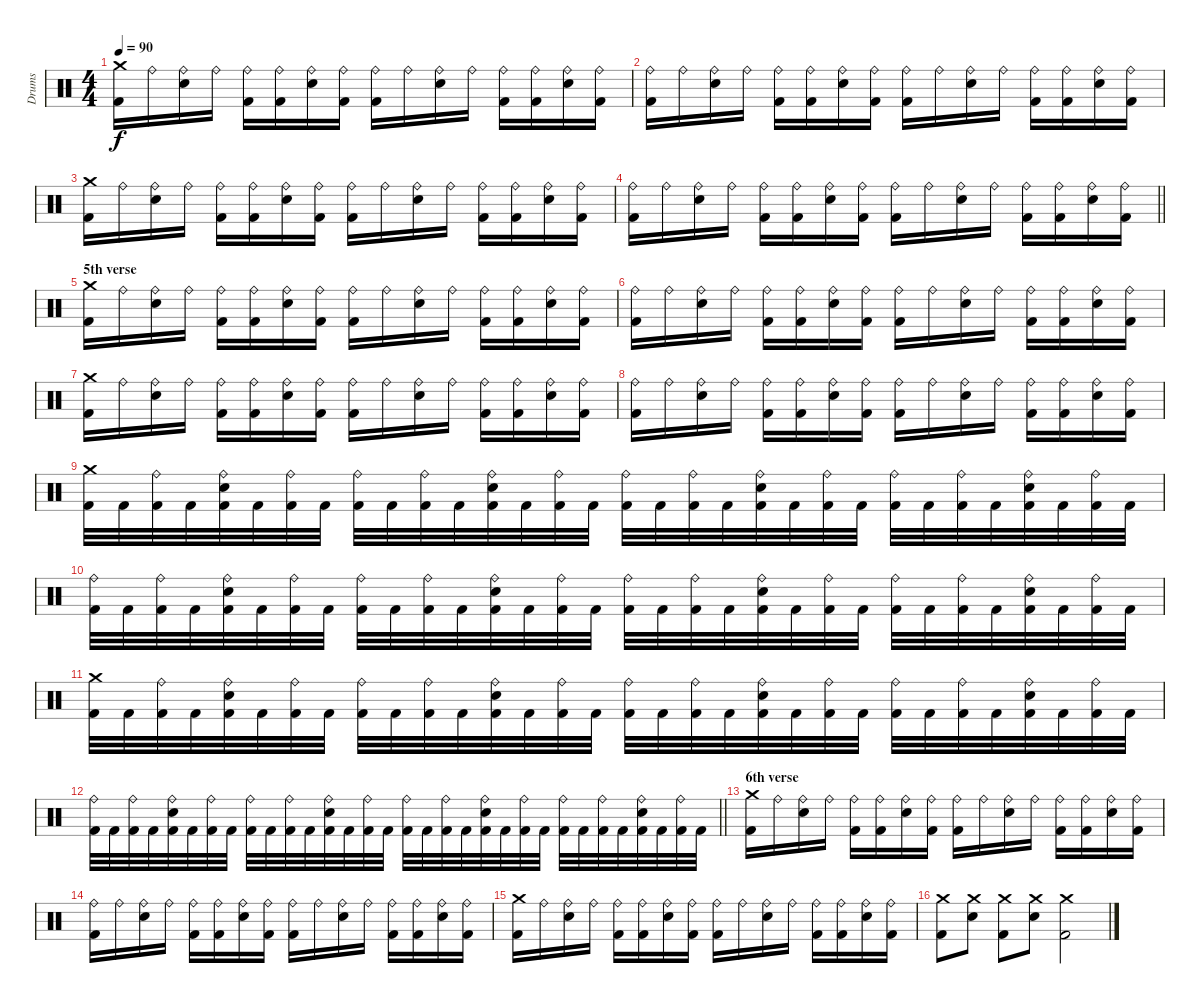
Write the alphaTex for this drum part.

\track ("Drums" "Drums") {instrument percussion}
\staff {score}
\articulation defaults
\ts (4 4)
\tempo 90
\clef neutral
\ks c
("Crash medium (hit)" "Kick (hit) 2").16{dy f} "Ride (bell)".16 ("Ride (bell)" "Snare (hit) 2").16 "Ride (bell)".16 ("Ride (bell)" "Kick (hit) 2").16 ("Ride (bell)" "Kick (hit) 2").16 ("Ride (bell)" "Snare (hit) 2").16 ("Ride (bell)" "Kick (hit) 2").16 ("Ride (bell)" "Kick (hit) 2").16 "Ride (bell)".16 ("Ride (bell)" "Snare (hit) 2").16 "Ride (bell)".16 ("Ride (bell)" "Kick (hit) 2").16 ("Ride (bell)" "Kick (hit) 2").16 ("Ride (bell)" "Snare (hit) 2").16 ("Ride (bell)" "Kick (hit) 2").16 |
("Ride (bell)" "Kick (hit) 2").16 "Ride (bell)".16 ("Ride (bell)" "Snare (hit) 2").16 "Ride (bell)".16 ("Ride (bell)" "Kick (hit) 2").16 ("Ride (bell)" "Kick (hit) 2").16 ("Ride (bell)" "Snare (hit) 2").16 ("Ride (bell)" "Kick (hit) 2").16 ("Ride (bell)" "Kick (hit) 2").16 "Ride (bell)".16 ("Ride (bell)" "Snare (hit) 2").16 "Ride (bell)".16 ("Ride (bell)" "Kick (hit) 2").16 ("Ride (bell)" "Kick (hit) 2").16 ("Ride (bell)" "Snare (hit) 2").16 ("Ride (bell)" "Kick (hit) 2").16 |
("Crash medium (hit)" "Kick (hit) 2").16 "Ride (bell)".16 ("Ride (bell)" "Snare (hit) 2").16 "Ride (bell)".16 ("Ride (bell)" "Kick (hit) 2").16 ("Ride (bell)" "Kick (hit) 2").16 ("Ride (bell)" "Snare (hit) 2").16 ("Ride (bell)" "Kick (hit) 2").16 ("Ride (bell)" "Kick (hit) 2").16 "Ride (bell)".16 ("Ride (bell)" "Snare (hit) 2").16 "Ride (bell)".16 ("Ride (bell)" "Kick (hit) 2").16 ("Ride (bell)" "Kick (hit) 2").16 ("Ride (bell)" "Snare (hit) 2").16 ("Ride (bell)" "Kick (hit) 2").16 |
\barLineRight lightlight
("Ride (bell)" "Kick (hit) 2").16 "Ride (bell)".16 ("Ride (bell)" "Snare (hit) 2").16 "Ride (bell)".16 ("Ride (bell)" "Kick (hit) 2").16 ("Ride (bell)" "Kick (hit) 2").16 ("Ride (bell)" "Snare (hit) 2").16 ("Ride (bell)" "Kick (hit) 2").16 ("Ride (bell)" "Kick (hit) 2").16 "Ride (bell)".16 ("Ride (bell)" "Snare (hit) 2").16 "Ride (bell)".16 ("Ride (bell)" "Kick (hit) 2").16 ("Ride (bell)" "Kick (hit) 2").16 ("Ride (bell)" "Snare (hit) 2").16 ("Ride (bell)" "Kick (hit) 2").16 |
\section ("" "5th verse")
("Crash medium (hit)" "Kick (hit) 2").16 "Ride (bell)".16 ("Ride (bell)" "Snare (hit) 2").16 "Ride (bell)".16 ("Ride (bell)" "Kick (hit) 2").16 ("Ride (bell)" "Kick (hit) 2").16 ("Ride (bell)" "Snare (hit) 2").16 ("Ride (bell)" "Kick (hit) 2").16 ("Ride (bell)" "Kick (hit) 2").16 "Ride (bell)".16 ("Ride (bell)" "Snare (hit) 2").16 "Ride (bell)".16 ("Ride (bell)" "Kick (hit) 2").16 ("Ride (bell)" "Kick (hit) 2").16 ("Ride (bell)" "Snare (hit) 2").16 ("Ride (bell)" "Kick (hit) 2").16 |
("Ride (bell)" "Kick (hit) 2").16 "Ride (bell)".16 ("Ride (bell)" "Snare (hit) 2").16 "Ride (bell)".16 ("Ride (bell)" "Kick (hit) 2").16 ("Ride (bell)" "Kick (hit) 2").16 ("Ride (bell)" "Snare (hit) 2").16 ("Ride (bell)" "Kick (hit) 2").16 ("Ride (bell)" "Kick (hit) 2").16 "Ride (bell)".16 ("Ride (bell)" "Snare (hit) 2").16 "Ride (bell)".16 ("Ride (bell)" "Kick (hit) 2").16 ("Ride (bell)" "Kick (hit) 2").16 ("Ride (bell)" "Snare (hit) 2").16 ("Ride (bell)" "Kick (hit) 2").16 |
("Crash medium (hit)" "Kick (hit) 2").16 "Ride (bell)".16 ("Ride (bell)" "Snare (hit) 2").16 "Ride (bell)".16 ("Ride (bell)" "Kick (hit) 2").16 ("Ride (bell)" "Kick (hit) 2").16 ("Ride (bell)" "Snare (hit) 2").16 ("Ride (bell)" "Kick (hit) 2").16 ("Ride (bell)" "Kick (hit) 2").16 "Ride (bell)".16 ("Ride (bell)" "Snare (hit) 2").16 "Ride (bell)".16 ("Ride (bell)" "Kick (hit) 2").16 ("Ride (bell)" "Kick (hit) 2").16 ("Ride (bell)" "Snare (hit) 2").16 ("Ride (bell)" "Kick (hit) 2").16 |
("Ride (bell)" "Kick (hit) 2").16 "Ride (bell)".16 ("Ride (bell)" "Snare (hit) 2").16 "Ride (bell)".16 ("Ride (bell)" "Kick (hit) 2").16 ("Ride (bell)" "Kick (hit) 2").16 ("Ride (bell)" "Snare (hit) 2").16 ("Ride (bell)" "Kick (hit) 2").16 ("Ride (bell)" "Kick (hit) 2").16 "Ride (bell)".16 ("Ride (bell)" "Snare (hit) 2").16 "Ride (bell)".16 ("Ride (bell)" "Kick (hit) 2").16 ("Ride (bell)" "Kick (hit) 2").16 ("Ride (bell)" "Snare (hit) 2").16 ("Ride (bell)" "Kick (hit) 2").16 |
("Crash medium (hit)" "Kick (hit) 2").32 "Kick (hit) 2".32 ("Ride (bell)" "Kick (hit) 2").32 "Kick (hit) 2".32 ("Ride (bell)" "Snare (hit) 2" "Kick (hit) 2").32 "Kick (hit) 2".32 ("Ride (bell)" "Kick (hit) 2").32 "Kick (hit) 2".32 ("Ride (bell)" "Kick (hit) 2").32 "Kick (hit) 2".32 ("Ride (bell)" "Kick (hit) 2").32 "Kick (hit) 2".32 ("Ride (bell)" "Snare (hit) 2" "Kick (hit) 2").32 "Kick (hit) 2".32 ("Ride (bell)" "Kick (hit) 2").32 "Kick (hit) 2".32 ("Ride (bell)" "Kick (hit) 2").32 "Kick (hit) 2".32 ("Ride (bell)" "Kick (hit) 2").32 "Kick (hit) 2".32 ("Ride (bell)" "Snare (hit) 2" "Kick (hit) 2").32 "Kick (hit) 2".32 ("Ride (bell)" "Kick (hit) 2").32 "Kick (hit) 2".32 ("Ride (bell)" "Kick (hit) 2").32 "Kick (hit) 2".32 ("Ride (bell)" "Kick (hit) 2").32 "Kick (hit) 2".32 ("Ride (bell)" "Snare (hit) 2" "Kick (hit) 2").32 "Kick (hit) 2".32 ("Ride (bell)" "Kick (hit) 2").32 "Kick (hit) 2".32 |
("Ride (bell)" "Kick (hit) 2").32 "Kick (hit) 2".32 ("Ride (bell)" "Kick (hit) 2").32 "Kick (hit) 2".32 ("Ride (bell)" "Snare (hit) 2" "Kick (hit) 2").32 "Kick (hit) 2".32 ("Ride (bell)" "Kick (hit) 2").32 "Kick (hit) 2".32 ("Ride (bell)" "Kick (hit) 2").32 "Kick (hit) 2".32 ("Ride (bell)" "Kick (hit) 2").32 "Kick (hit) 2".32 ("Ride (bell)" "Snare (hit) 2" "Kick (hit) 2").32 "Kick (hit) 2".32 ("Ride (bell)" "Kick (hit) 2").32 "Kick (hit) 2".32 ("Ride (bell)" "Kick (hit) 2").32 "Kick (hit) 2".32 ("Ride (bell)" "Kick (hit) 2").32 "Kick (hit) 2".32 ("Ride (bell)" "Snare (hit) 2" "Kick (hit) 2").32 "Kick (hit) 2".32 ("Ride (bell)" "Kick (hit) 2").32 "Kick (hit) 2".32 ("Ride (bell)" "Kick (hit) 2").32 "Kick (hit) 2".32 ("Ride (bell)" "Kick (hit) 2").32 "Kick (hit) 2".32 ("Ride (bell)" "Snare (hit) 2" "Kick (hit) 2").32 "Kick (hit) 2".32 ("Ride (bell)" "Kick (hit) 2").32 "Kick (hit) 2".32 |
("Crash medium (hit)" "Kick (hit) 2").32 "Kick (hit) 2".32 ("Ride (bell)" "Kick (hit) 2").32 "Kick (hit) 2".32 ("Ride (bell)" "Snare (hit) 2" "Kick (hit) 2").32 "Kick (hit) 2".32 ("Ride (bell)" "Kick (hit) 2").32 "Kick (hit) 2".32 ("Ride (bell)" "Kick (hit) 2").32 "Kick (hit) 2".32 ("Ride (bell)" "Kick (hit) 2").32 "Kick (hit) 2".32 ("Ride (bell)" "Snare (hit) 2" "Kick (hit) 2").32 "Kick (hit) 2".32 ("Ride (bell)" "Kick (hit) 2").32 "Kick (hit) 2".32 ("Ride (bell)" "Kick (hit) 2").32 "Kick (hit) 2".32 ("Ride (bell)" "Kick (hit) 2").32 "Kick (hit) 2".32 ("Ride (bell)" "Snare (hit) 2" "Kick (hit) 2").32 "Kick (hit) 2".32 ("Ride (bell)" "Kick (hit) 2").32 "Kick (hit) 2".32 ("Ride (bell)" "Kick (hit) 2").32 "Kick (hit) 2".32 ("Ride (bell)" "Kick (hit) 2").32 "Kick (hit) 2".32 ("Ride (bell)" "Snare (hit) 2" "Kick (hit) 2").32 "Kick (hit) 2".32 ("Ride (bell)" "Kick (hit) 2").32 "Kick (hit) 2".32 |
\barLineRight lightlight
("Ride (bell)" "Kick (hit) 2").32 "Kick (hit) 2".32 ("Ride (bell)" "Kick (hit) 2").32 "Kick (hit) 2".32 ("Ride (bell)" "Snare (hit) 2" "Kick (hit) 2").32 "Kick (hit) 2".32 ("Ride (bell)" "Kick (hit) 2").32 "Kick (hit) 2".32 ("Ride (bell)" "Kick (hit) 2").32 "Kick (hit) 2".32 ("Ride (bell)" "Kick (hit) 2").32 "Kick (hit) 2".32 ("Ride (bell)" "Snare (hit) 2" "Kick (hit) 2").32 "Kick (hit) 2".32 ("Ride (bell)" "Kick (hit) 2").32 "Kick (hit) 2".32 ("Ride (bell)" "Kick (hit) 2").32 "Kick (hit) 2".32 ("Ride (bell)" "Kick (hit) 2").32 "Kick (hit) 2".32 ("Ride (bell)" "Snare (hit) 2" "Kick (hit) 2").32 "Kick (hit) 2".32 ("Ride (bell)" "Kick (hit) 2").32 "Kick (hit) 2".32 ("Ride (bell)" "Kick (hit) 2").32 "Kick (hit) 2".32 ("Ride (bell)" "Kick (hit) 2").32 "Kick (hit) 2".32 ("Ride (bell)" "Snare (hit) 2" "Kick (hit) 2").32 "Kick (hit) 2".32 ("Ride (bell)" "Kick (hit) 2").32 "Kick (hit) 2".32 |
\section ("" "6th verse")
("Crash medium (hit)" "Kick (hit) 2").16 "Ride (bell)".16 ("Ride (bell)" "Snare (hit) 2").16 "Ride (bell)".16 ("Ride (bell)" "Kick (hit) 2").16 ("Ride (bell)" "Kick (hit) 2").16 ("Ride (bell)" "Snare (hit) 2").16 ("Ride (bell)" "Kick (hit) 2").16 ("Ride (bell)" "Kick (hit) 2").16 "Ride (bell)".16 ("Ride (bell)" "Snare (hit) 2").16 "Ride (bell)".16 ("Ride (bell)" "Kick (hit) 2").16 ("Ride (bell)" "Kick (hit) 2").16 ("Ride (bell)" "Snare (hit) 2").16 ("Ride (bell)" "Kick (hit) 2").16 |
("Ride (bell)" "Kick (hit) 2").16 "Ride (bell)".16 ("Ride (bell)" "Snare (hit) 2").16 "Ride (bell)".16 ("Ride (bell)" "Kick (hit) 2").16 ("Ride (bell)" "Kick (hit) 2").16 ("Ride (bell)" "Snare (hit) 2").16 ("Ride (bell)" "Kick (hit) 2").16 ("Ride (bell)" "Kick (hit) 2").16 "Ride (bell)".16 ("Ride (bell)" "Snare (hit) 2").16 "Ride (bell)".16 ("Ride (bell)" "Kick (hit) 2").16 ("Ride (bell)" "Kick (hit) 2").16 ("Ride (bell)" "Snare (hit) 2").16 ("Ride (bell)" "Kick (hit) 2").16 |
("Crash medium (hit)" "Kick (hit) 2").16 "Ride (bell)".16 ("Ride (bell)" "Snare (hit) 2").16 "Ride (bell)".16 ("Ride (bell)" "Kick (hit) 2").16 ("Ride (bell)" "Kick (hit) 2").16 ("Ride (bell)" "Snare (hit) 2").16 ("Ride (bell)" "Kick (hit) 2").16 ("Ride (bell)" "Kick (hit) 2").16 "Ride (bell)".16 ("Ride (bell)" "Snare (hit) 2").16 "Ride (bell)".16 ("Ride (bell)" "Kick (hit) 2").16 ("Ride (bell)" "Kick (hit) 2").16 ("Ride (bell)" "Snare (hit) 2").16 ("Ride (bell)" "Kick (hit) 2").16 |
("Crash medium (hit)" "Kick (hit) 2").8 ("Crash medium (hit)" "Snare (hit) 2").8 ("Crash medium (hit)" "Kick (hit) 2").8 ("Crash medium (hit)" "Snare (hit) 2").8 ("Crash medium (hit)" "Kick (hit) 2").2
